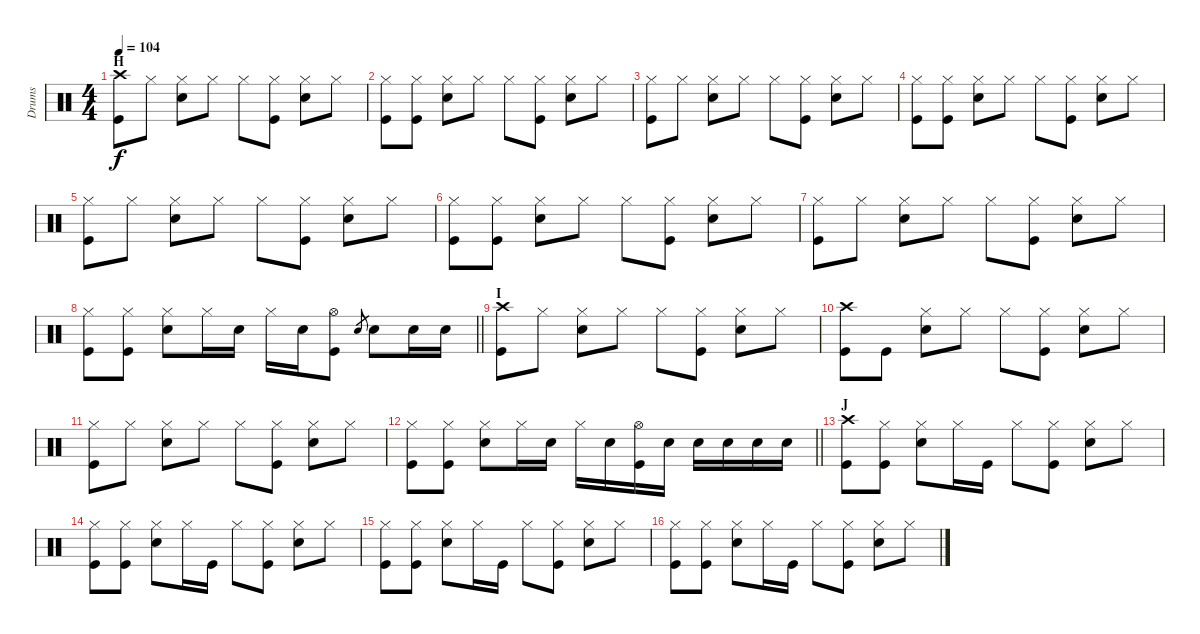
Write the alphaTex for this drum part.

\track ("Drums" "Drums") {instrument percussion}
\staff {score}
\articulation defaults
\ts (4 4)
\section ("" "H")
\tempo 104
\clef neutral
\ks c
("Crash high (hit)" "Kick (hit)").8{dy f} "Hi-Hat (closed)".8 ("Hi-Hat (closed)" "Electric Snare (hit)").8 "Hi-Hat (closed)".8 "Hi-Hat (closed)".8 ("Hi-Hat (closed)" "Kick (hit)").8 ("Hi-Hat (closed)" "Electric Snare (hit)").8 "Hi-Hat (closed)".8 |
("Hi-Hat (closed)" "Kick (hit)").8 ("Hi-Hat (closed)" "Kick (hit)").8 ("Hi-Hat (closed)" "Electric Snare (hit)").8 "Hi-Hat (closed)".8 "Hi-Hat (closed)".8 ("Hi-Hat (closed)" "Kick (hit)").8 ("Hi-Hat (closed)" "Electric Snare (hit)").8 "Hi-Hat (closed)".8 |
("Hi-Hat (closed)" "Kick (hit)").8 "Hi-Hat (closed)".8 ("Hi-Hat (closed)" "Electric Snare (hit)").8 "Hi-Hat (closed)".8 "Hi-Hat (closed)".8 ("Hi-Hat (closed)" "Kick (hit)").8 ("Hi-Hat (closed)" "Electric Snare (hit)").8 "Hi-Hat (closed)".8 |
("Hi-Hat (closed)" "Kick (hit)").8 ("Hi-Hat (closed)" "Kick (hit)").8 ("Hi-Hat (closed)" "Electric Snare (hit)").8 "Hi-Hat (closed)".8 "Hi-Hat (closed)".8 ("Hi-Hat (closed)" "Kick (hit)").8 ("Hi-Hat (closed)" "Electric Snare (hit)").8 "Hi-Hat (closed)".8 |
("Hi-Hat (closed)" "Kick (hit)").8 "Hi-Hat (closed)".8 ("Hi-Hat (closed)" "Electric Snare (hit)").8 "Hi-Hat (closed)".8 "Hi-Hat (closed)".8 ("Hi-Hat (closed)" "Kick (hit)").8 ("Hi-Hat (closed)" "Electric Snare (hit)").8 "Hi-Hat (closed)".8 |
("Hi-Hat (closed)" "Kick (hit)").8 ("Hi-Hat (closed)" "Kick (hit)").8 ("Hi-Hat (closed)" "Electric Snare (hit)").8 "Hi-Hat (closed)".8 "Hi-Hat (closed)".8 ("Hi-Hat (closed)" "Kick (hit)").8 ("Hi-Hat (closed)" "Electric Snare (hit)").8 "Hi-Hat (closed)".8 |
("Hi-Hat (closed)" "Kick (hit)").8 "Hi-Hat (closed)".8 ("Hi-Hat (closed)" "Electric Snare (hit)").8 "Hi-Hat (closed)".8 "Hi-Hat (closed)".8 ("Hi-Hat (closed)" "Kick (hit)").8 ("Hi-Hat (closed)" "Electric Snare (hit)").8 "Hi-Hat (closed)".8 |
\barLineRight lightlight
("Hi-Hat (closed)" "Kick (hit)").8 ("Hi-Hat (closed)" "Kick (hit)").8 ("Hi-Hat (closed)" "Electric Snare (hit)").8 "Hi-Hat (closed)".16 "Electric Snare (hit)".16 "Hi-Hat (closed)".16 "Electric Snare (hit)".16 ("Hi-Hat (open)" "Kick (hit)").8 "Electric Snare (hit)".8{gr} "Electric Snare (hit)".8 "Electric Snare (hit)".16 "Electric Snare (hit)".16 |
\section ("" "I")
("Crash high (hit)" "Kick (hit)").8 "Hi-Hat (closed)".8 ("Hi-Hat (closed)" "Electric Snare (hit)").8 "Hi-Hat (closed)".8 "Hi-Hat (closed)".8 ("Hi-Hat (closed)" "Kick (hit)").8 ("Hi-Hat (closed)" "Electric Snare (hit)").8 "Hi-Hat (closed)".8 |
("Crash high (hit)" "Kick (hit)").8 "Kick (hit)".8 ("Hi-Hat (closed)" "Electric Snare (hit)").8 "Hi-Hat (closed)".8 "Hi-Hat (closed)".8 ("Hi-Hat (closed)" "Kick (hit)").8 ("Hi-Hat (closed)" "Electric Snare (hit)").8 "Hi-Hat (closed)".8 |
("Hi-Hat (closed)" "Kick (hit)").8 "Hi-Hat (closed)".8 ("Hi-Hat (closed)" "Electric Snare (hit)").8 "Hi-Hat (closed)".8 "Hi-Hat (closed)".8 ("Hi-Hat (closed)" "Kick (hit)").8 ("Hi-Hat (closed)" "Electric Snare (hit)").8 "Hi-Hat (closed)".8 |
\barLineRight lightlight
("Hi-Hat (closed)" "Kick (hit)").8 ("Hi-Hat (closed)" "Kick (hit)").8 ("Hi-Hat (closed)" "Electric Snare (hit)").8 "Hi-Hat (closed)".16 "Electric Snare (hit)".16 "Hi-Hat (closed)".16 "Electric Snare (hit)".16 ("Hi-Hat (open)" "Kick (hit)").16 "Electric Snare (hit)".16 "Electric Snare (hit)".16 "Electric Snare (hit)".16 "Electric Snare (hit)".16 "Electric Snare (hit)".16 |
\section ("" "J")
("Crash high (hit)" "Kick (hit)").8 ("Hi-Hat (closed)" "Kick (hit)").8 ("Hi-Hat (closed)" "Electric Snare (hit)").8 "Hi-Hat (closed)".16 "Kick (hit)".16 "Hi-Hat (closed)".8 ("Hi-Hat (closed)" "Kick (hit)").8 ("Hi-Hat (closed)" "Electric Snare (hit)").8 "Hi-Hat (closed)".8 |
("Hi-Hat (closed)" "Kick (hit)").8 ("Hi-Hat (closed)" "Kick (hit)").8 ("Hi-Hat (closed)" "Electric Snare (hit)").8 "Hi-Hat (closed)".16 "Kick (hit)".16 "Hi-Hat (closed)".8 ("Hi-Hat (closed)" "Kick (hit)").8 ("Hi-Hat (closed)" "Electric Snare (hit)").8 "Hi-Hat (closed)".8 |
("Hi-Hat (closed)" "Kick (hit)").8 ("Hi-Hat (closed)" "Kick (hit)").8 ("Hi-Hat (closed)" "Electric Snare (hit)").8 "Hi-Hat (closed)".16 "Kick (hit)".16 "Hi-Hat (closed)".8 ("Hi-Hat (closed)" "Kick (hit)").8 ("Hi-Hat (closed)" "Electric Snare (hit)").8 "Hi-Hat (closed)".8 |
("Hi-Hat (closed)" "Kick (hit)").8 ("Hi-Hat (closed)" "Kick (hit)").8 ("Hi-Hat (closed)" "Electric Snare (hit)").8 "Hi-Hat (closed)".16 "Kick (hit)".16 "Hi-Hat (closed)".8 ("Hi-Hat (closed)" "Kick (hit)").8 ("Hi-Hat (closed)" "Electric Snare (hit)").8 "Hi-Hat (closed)".8
